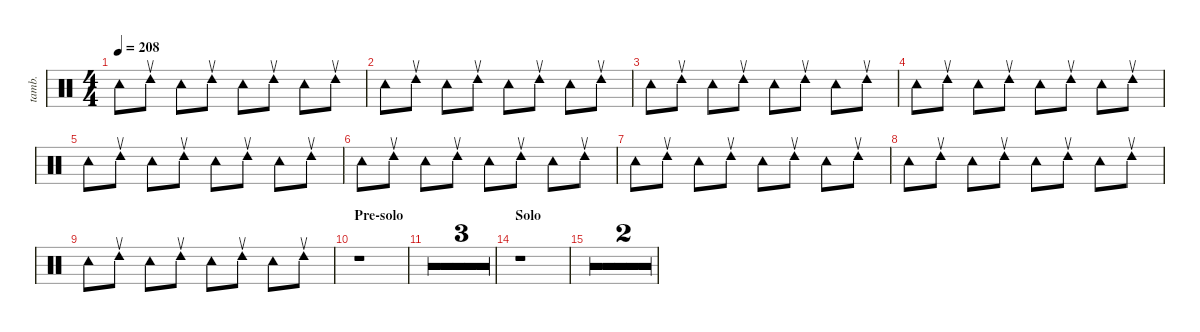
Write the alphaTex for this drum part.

\defaultSystemsLayout 4
\hideDynamics
\bracketExtendMode nobrackets
\otherSystemsTrackNameOrientation horizontal
\track ("Tambourine" "tamb.") {multiBarRest instrument percussion}
\staff
\articulation defaults
\ts (4 4)
\tempo 208
\clef neutral
\ks c "Tambourine (hit)".8{dy mf} "Tambourine (return)".8 "Tambourine (hit)".8 "Tambourine (return)".8 "Tambourine (hit)".8 "Tambourine (return)".8 "Tambourine (hit)".8 "Tambourine (return)".8
|
"Tambourine (hit)".8 "Tambourine (return)".8 "Tambourine (hit)".8 "Tambourine (return)".8 "Tambourine (hit)".8 "Tambourine (return)".8 "Tambourine (hit)".8 "Tambourine (return)".8 |
"Tambourine (hit)".8 "Tambourine (return)".8 "Tambourine (hit)".8 "Tambourine (return)".8 "Tambourine (hit)".8 "Tambourine (return)".8 "Tambourine (hit)".8 "Tambourine (return)".8 |
"Tambourine (hit)".8 "Tambourine (return)".8 "Tambourine (hit)".8 "Tambourine (return)".8 "Tambourine (hit)".8 "Tambourine (return)".8 "Tambourine (hit)".8 "Tambourine (return)".8 |
"Tambourine (hit)".8 "Tambourine (return)".8 "Tambourine (hit)".8 "Tambourine (return)".8 "Tambourine (hit)".8 "Tambourine (return)".8 "Tambourine (hit)".8 "Tambourine (return)".8 |
"Tambourine (hit)".8 "Tambourine (return)".8 "Tambourine (hit)".8 "Tambourine (return)".8 "Tambourine (hit)".8 "Tambourine (return)".8 "Tambourine (hit)".8 "Tambourine (return)".8 |
"Tambourine (hit)".8 "Tambourine (return)".8 "Tambourine (hit)".8 "Tambourine (return)".8 "Tambourine (hit)".8 "Tambourine (return)".8 "Tambourine (hit)".8 "Tambourine (return)".8 |
"Tambourine (hit)".8 "Tambourine (return)".8 "Tambourine (hit)".8 "Tambourine (return)".8 "Tambourine (hit)".8 "Tambourine (return)".8 "Tambourine (hit)".8 "Tambourine (return)".8 |
"Tambourine (hit)".8 "Tambourine (return)".8 "Tambourine (hit)".8 "Tambourine (return)".8 "Tambourine (hit)".8 "Tambourine (return)".8 "Tambourine (hit)".8 "Tambourine (return)".8 |
\section ("" "Pre-solo")
r.1 |
r.1 |
r.1 |
r.1 |
\section ("" "Solo")
r.1 |
r.1 |
r.1
